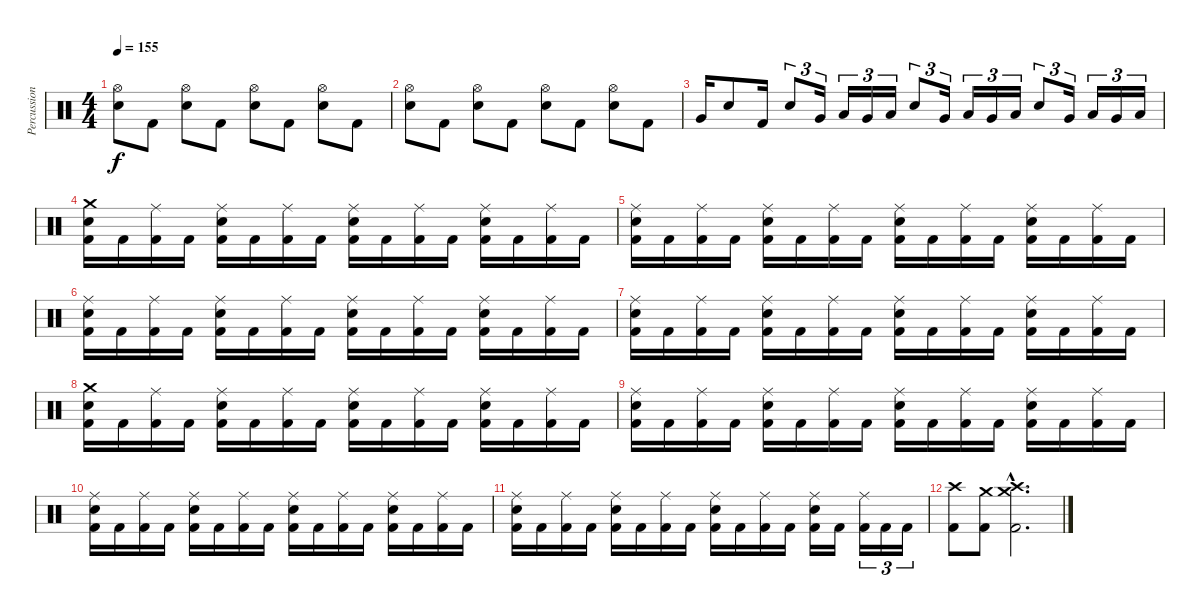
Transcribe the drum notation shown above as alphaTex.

\track ("Percussion" "Percussion") {instrument percussion}
\staff {score}
\articulation defaults
\ts (4 4)
\tempo 155
\clef neutral
\ks c
("Hi-Hat (open)" "Electric Snare (hit)").8{dy f} "Kick (hit) 2".8 ("Hi-Hat (open)" "Electric Snare (hit)").8 "Kick (hit) 2".8 ("Hi-Hat (open)" "Electric Snare (hit)").8 "Kick (hit) 2".8 ("Hi-Hat (open)" "Electric Snare (hit)").8 "Kick (hit) 2".8 |
("Hi-Hat (open)" "Electric Snare (hit)").8 "Kick (hit) 2".8 ("Hi-Hat (open)" "Electric Snare (hit)").8 "Kick (hit) 2".8 ("Hi-Hat (open)" "Electric Snare (hit)").8 "Kick (hit) 2".8 ("Hi-Hat (open)" "Electric Snare (hit)").8 "Kick (hit) 2".8 |
"Very Low Tom (hit)".16 "Electric Snare (hit)".8 "Kick (hit) 2".16 "Electric Snare (hit)".8{tu (3 2)} "Very Low Tom (hit)".16{tu (3 2)} "Low Floor Tom (hit)".16{tu (3 2)} "Very Low Tom (hit)".16{tu (3 2)} "Low Floor Tom (hit)".16{tu (3 2)} "Electric Snare (hit)".8{tu (3 2)} "Very Low Tom (hit)".16{tu (3 2)} "Low Floor Tom (hit)".16{tu (3 2)} "Very Low Tom (hit)".16{tu (3 2)} "Low Floor Tom (hit)".16{tu (3 2)} "Electric Snare (hit)".8{tu (3 2)} "Very Low Tom (hit)".16{tu (3 2)} "Low Floor Tom (hit)".16{tu (3 2)} "Very Low Tom (hit)".16{tu (3 2)} "Low Floor Tom (hit)".16{tu (3 2)} |
("Crash medium (hit)" "Electric Snare (hit)" "Kick (hit) 2").16 "Kick (hit) 2".16 ("Ride (middle)" "Kick (hit) 2").16 "Kick (hit) 2".16 ("Ride (middle)" "Electric Snare (hit)" "Kick (hit) 2").16 "Kick (hit) 2".16 ("Ride (middle)" "Kick (hit) 2").16 "Kick (hit) 2".16 ("Ride (middle)" "Electric Snare (hit)" "Kick (hit) 2").16 "Kick (hit) 2".16 ("Ride (middle)" "Kick (hit) 2").16 "Kick (hit) 2".16 ("Ride (middle)" "Electric Snare (hit)" "Kick (hit) 2").16 "Kick (hit) 2".16 ("Ride (middle)" "Kick (hit) 2").16 "Kick (hit) 2".16 |
("Ride (middle)" "Electric Snare (hit)" "Kick (hit) 2").16 "Kick (hit) 2".16 ("Ride (middle)" "Kick (hit) 2").16 "Kick (hit) 2".16 ("Ride (middle)" "Electric Snare (hit)" "Kick (hit) 2").16 "Kick (hit) 2".16 ("Ride (middle)" "Kick (hit) 2").16 "Kick (hit) 2".16 ("Ride (middle)" "Electric Snare (hit)" "Kick (hit) 2").16 "Kick (hit) 2".16 ("Ride (middle)" "Kick (hit) 2").16 "Kick (hit) 2".16 ("Ride (middle)" "Electric Snare (hit)" "Kick (hit) 2").16 "Kick (hit) 2".16 ("Ride (middle)" "Kick (hit) 2").16 "Kick (hit) 2".16 |
("Ride (middle)" "Electric Snare (hit)" "Kick (hit) 2").16 "Kick (hit) 2".16 ("Ride (middle)" "Kick (hit) 2").16 "Kick (hit) 2".16 ("Ride (middle)" "Electric Snare (hit)" "Kick (hit) 2").16 "Kick (hit) 2".16 ("Ride (middle)" "Kick (hit) 2").16 "Kick (hit) 2".16 ("Ride (middle)" "Electric Snare (hit)" "Kick (hit) 2").16 "Kick (hit) 2".16 ("Ride (middle)" "Kick (hit) 2").16 "Kick (hit) 2".16 ("Ride (middle)" "Electric Snare (hit)" "Kick (hit) 2").16 "Kick (hit) 2".16 ("Ride (middle)" "Kick (hit) 2").16 "Kick (hit) 2".16 |
("Ride (middle)" "Electric Snare (hit)" "Kick (hit) 2").16 "Kick (hit) 2".16 ("Ride (middle)" "Kick (hit) 2").16 "Kick (hit) 2".16 ("Ride (middle)" "Electric Snare (hit)" "Kick (hit) 2").16 "Kick (hit) 2".16 ("Ride (middle)" "Kick (hit) 2").16 "Kick (hit) 2".16 ("Ride (middle)" "Electric Snare (hit)" "Kick (hit) 2").16 "Kick (hit) 2".16 ("Ride (middle)" "Kick (hit) 2").16 "Kick (hit) 2".16 ("Ride (middle)" "Electric Snare (hit)" "Kick (hit) 2").16 "Kick (hit) 2".16 ("Ride (middle)" "Kick (hit) 2").16 "Kick (hit) 2".16 |
("Crash medium (hit)" "Electric Snare (hit)" "Kick (hit) 2").16 "Kick (hit) 2".16 ("Ride (middle)" "Kick (hit) 2").16 "Kick (hit) 2".16 ("Ride (middle)" "Electric Snare (hit)" "Kick (hit) 2").16 "Kick (hit) 2".16 ("Ride (middle)" "Kick (hit) 2").16 "Kick (hit) 2".16 ("Ride (middle)" "Electric Snare (hit)" "Kick (hit) 2").16 "Kick (hit) 2".16 ("Ride (middle)" "Kick (hit) 2").16 "Kick (hit) 2".16 ("Ride (middle)" "Electric Snare (hit)" "Kick (hit) 2").16 "Kick (hit) 2".16 ("Ride (middle)" "Kick (hit) 2").16 "Kick (hit) 2".16 |
("Ride (middle)" "Electric Snare (hit)" "Kick (hit) 2").16 "Kick (hit) 2".16 ("Ride (middle)" "Kick (hit) 2").16 "Kick (hit) 2".16 ("Ride (middle)" "Electric Snare (hit)" "Kick (hit) 2").16 "Kick (hit) 2".16 ("Ride (middle)" "Kick (hit) 2").16 "Kick (hit) 2".16 ("Ride (middle)" "Electric Snare (hit)" "Kick (hit) 2").16 "Kick (hit) 2".16 ("Ride (middle)" "Kick (hit) 2").16 "Kick (hit) 2".16 ("Ride (middle)" "Electric Snare (hit)" "Kick (hit) 2").16 "Kick (hit) 2".16 ("Ride (middle)" "Kick (hit) 2").16 "Kick (hit) 2".16 |
("Ride (middle)" "Electric Snare (hit)" "Kick (hit) 2").16 "Kick (hit) 2".16 ("Ride (middle)" "Kick (hit) 2").16 "Kick (hit) 2".16 ("Ride (middle)" "Electric Snare (hit)" "Kick (hit) 2").16 "Kick (hit) 2".16 ("Ride (middle)" "Kick (hit) 2").16 "Kick (hit) 2".16 ("Ride (middle)" "Electric Snare (hit)" "Kick (hit) 2").16 "Kick (hit) 2".16 ("Ride (middle)" "Kick (hit) 2").16 "Kick (hit) 2".16 ("Ride (middle)" "Electric Snare (hit)" "Kick (hit) 2").16 "Kick (hit) 2".16 ("Ride (middle)" "Kick (hit) 2").16 "Kick (hit) 2".16 |
("Ride (middle)" "Electric Snare (hit)" "Kick (hit) 2").16 "Kick (hit) 2".16 ("Ride (middle)" "Kick (hit) 2").16 "Kick (hit) 2".16 ("Ride (middle)" "Electric Snare (hit)" "Kick (hit) 2").16 "Kick (hit) 2".16 ("Ride (middle)" "Kick (hit) 2").16 "Kick (hit) 2".16 ("Ride (middle)" "Electric Snare (hit)" "Kick (hit) 2").16 "Kick (hit) 2".16 ("Ride (middle)" "Kick (hit) 2").16 "Kick (hit) 2".16 ("Ride (middle)" "Electric Snare (hit)" "Kick (hit) 2").16 "Kick (hit) 2".16 ("Ride (middle)" "Kick (hit) 2").16{tu (3 2)} "Kick (hit) 2".16{tu (3 2)} "Kick (hit) 2".16{tu (3 2)} |
("Crash high (hit)" "Kick (hit) 2").8 ("Crash medium (hit)" "Kick (hit) 2").8 ("Crash medium (hit)"{hac} "Crash high (hit)"{hac} "Kick (hit) 2"{hac}).2{d}
